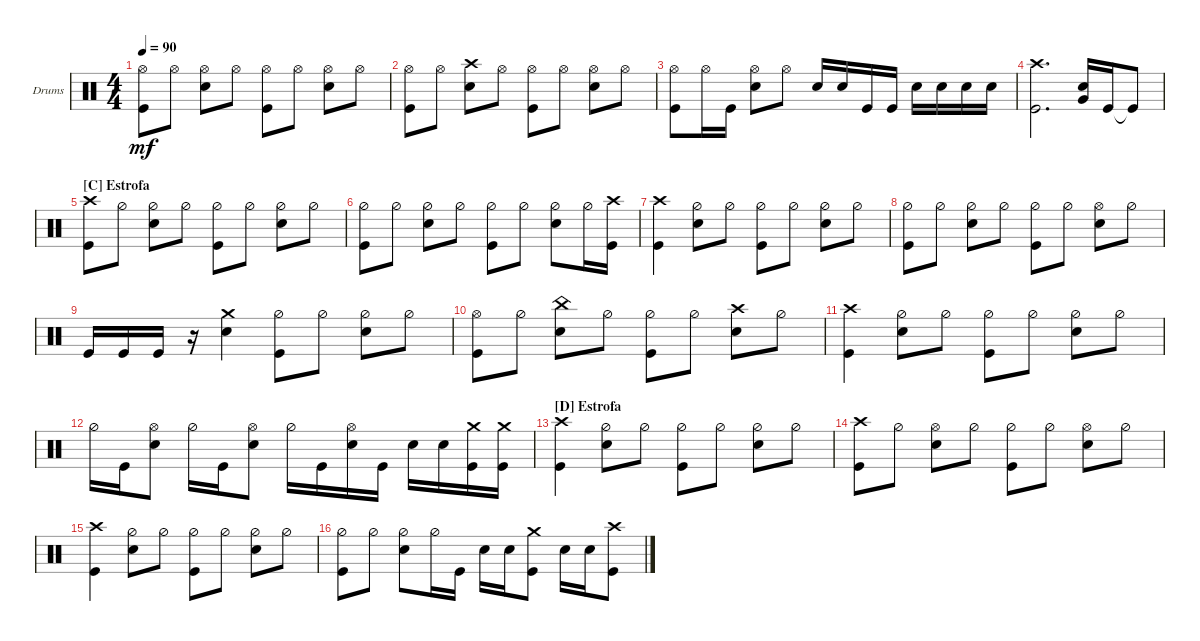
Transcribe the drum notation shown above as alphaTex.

\bracketExtendMode groupsimilarinstruments
\firstSystemTrackNameOrientation horizontal
\otherSystemsTrackNameOrientation horizontal
\track ("Arin Ilejay" "Drums") {instrument percussion}
\staff {score}
\articulation defaults
\ts (4 4)
\tempo 90
\clef neutral
\ks c
("Hi-Hat (open)" "Kick (hit)").8{dy mf} "Hi-Hat (open)".8 ("Snare (hit) 2" "Hi-Hat (open)").8 "Hi-Hat (open)".8 ("Hi-Hat (open)" "Kick (hit)").8 "Hi-Hat (open)".8 ("Snare (hit) 2" "Hi-Hat (open)").8 "Hi-Hat (open)".8 |
("Hi-Hat (open)" "Kick (hit)").8 "Hi-Hat (open)".8 ("Snare (hit) 2" "Crash high (hit)").8 "Hi-Hat (open)".8 ("Hi-Hat (open)" "Kick (hit)").8 "Hi-Hat (open)".8 ("Snare (hit) 2" "Hi-Hat (open)").8 "Hi-Hat (open)".8 |
("Hi-Hat (open)" "Kick (hit)").8 "Hi-Hat (open)".16 "Kick (hit)".16 ("Snare (hit) 2" "Hi-Hat (open)").8 "Hi-Hat (open)".8 "Snare (hit) 2".16 "Snare (hit) 2".16 "Kick (hit)".16 "Kick (hit)".16 "Snare (hit) 2".16 "Snare (hit) 2".16 "Snare (hit) 2".16 "Snare (hit) 2".16 |
("Kick (hit)" "Crash high (hit)").2{d} ("Snare (hit) 2" "Very Low Tom (hit)").16 "Kick (hit)".16 "Kick (hit)"{t}.8 |
\section ("C" "Estrofa")
("Crash high (hit)" "Kick (hit)").8 "Hi-Hat (half)".8 ("Snare (hit) 2" "Hi-Hat (half)").8 "Hi-Hat (half)".8 ("Hi-Hat (half)" "Kick (hit)").8 "Hi-Hat (half)".8 ("Snare (hit) 2" "Hi-Hat (half)").8 "Hi-Hat (half)".8 |
("Hi-Hat (half)" "Kick (hit)").8 "Hi-Hat (half)".8 ("Snare (hit) 2" "Hi-Hat (half)").8 "Hi-Hat (half)".8 ("Hi-Hat (half)" "Kick (hit)").8 "Hi-Hat (half)".8 ("Hi-Hat (half)" "Snare (hit) 2").8 "Hi-Hat (half)".16 ("Kick (hit)" "Crash high (hit)").16 |
("Crash high (hit)" "Kick (hit)").4 ("Snare (hit) 2" "Hi-Hat (half)").8 "Hi-Hat (half)".8 ("Hi-Hat (half)" "Kick (hit)").8 "Hi-Hat (half)".8 ("Snare (hit) 2" "Hi-Hat (half)").8 "Hi-Hat (half)".8 |
("Hi-Hat (half)" "Kick (hit)").8 "Hi-Hat (half)".8 ("Snare (hit) 2" "Hi-Hat (half)").8 "Hi-Hat (half)".8 ("Hi-Hat (half)" "Kick (hit)").8 "Hi-Hat (half)".8 ("Snare (hit) 2" "Hi-Hat (open)").8 "Hi-Hat (half)".8 |
"Kick (hit)".16 "Kick (hit)".16 "Kick (hit)".16 r.16 ("Snare (hit) 2" "Crash medium (hit)").4 ("Hi-Hat (half)" "Kick (hit)").8 "Hi-Hat (half)".8 ("Snare (hit) 2" "Hi-Hat (half)").8 "Hi-Hat (half)".8 |
("Hi-Hat (open)" "Kick (hit)").8 "Hi-Hat (half)".8 ("Snare (hit) 2" "China (hit)").8 "Hi-Hat (half)".8 ("Hi-Hat (half)" "Kick (hit)").8 "Hi-Hat (half)".8 ("Snare (hit) 2" "Crash high (hit)").8 "Hi-Hat (half)".8 |
("Kick (hit)" "Crash high (hit)").4 ("Snare (hit) 2" "Hi-Hat (half)").8 "Hi-Hat (half)".8 ("Hi-Hat (half)" "Kick (hit)").8 "Hi-Hat (half)".8 ("Snare (hit) 2" "Hi-Hat (half)").8 "Hi-Hat (half)".8 |
"Hi-Hat (half)".16 "Kick (hit)".16 ("Snare (hit) 2" "Hi-Hat (open)").8 "Hi-Hat (half)".16 "Kick (hit)".16 ("Snare (hit) 2" "Hi-Hat (open)").8 "Hi-Hat (half)".16 "Kick (hit)".16 ("Snare (hit) 2" "Hi-Hat (open)").16 "Kick (hit)".16 "Snare (hit) 2".16 "Snare (hit) 2".16 ("Kick (hit)" "Crash medium (hit)").16 ("Kick (hit)" "Crash medium (hit)").16 |
\section ("D" "Estrofa")
("Crash high (hit)" "Kick (hit)").4 ("Hi-Hat (half)" "Snare (hit) 2").8 "Hi-Hat (half)".8 ("Hi-Hat (half)" "Kick (hit)").8 "Hi-Hat (half)".8 ("Hi-Hat (half)" "Snare (hit) 2").8 "Hi-Hat (half)".8 |
("Kick (hit)" "Crash high (hit)").8 "Hi-Hat (half)".8 ("Hi-Hat (open)" "Snare (hit) 2").8 "Hi-Hat (half)".8 ("Hi-Hat (half)" "Kick (hit)").8 "Hi-Hat (half)".8 ("Hi-Hat (open)" "Snare (hit) 2").8 "Hi-Hat (half)".8 |
("Crash high (hit)" "Kick (hit)").4 ("Hi-Hat (half)" "Snare (hit) 2").8 "Hi-Hat (half)".8 ("Hi-Hat (half)" "Kick (hit)").8 "Hi-Hat (half)".8 ("Hi-Hat (half)" "Snare (hit) 2").8 "Hi-Hat (half)".8 |
("Hi-Hat (half)" "Kick (hit)").8 "Hi-Hat (half)".8 ("Hi-Hat (half)" "Snare (hit) 2").8 "Hi-Hat (half)".16 "Kick (hit)".16 "Snare (hit) 2".16 "Snare (hit) 2".16 ("Kick (hit)" "Crash medium (hit)").8 "Snare (hit) 2".16 "Snare (hit) 2".16 ("Kick (hit)" "Crash high (hit)").8
